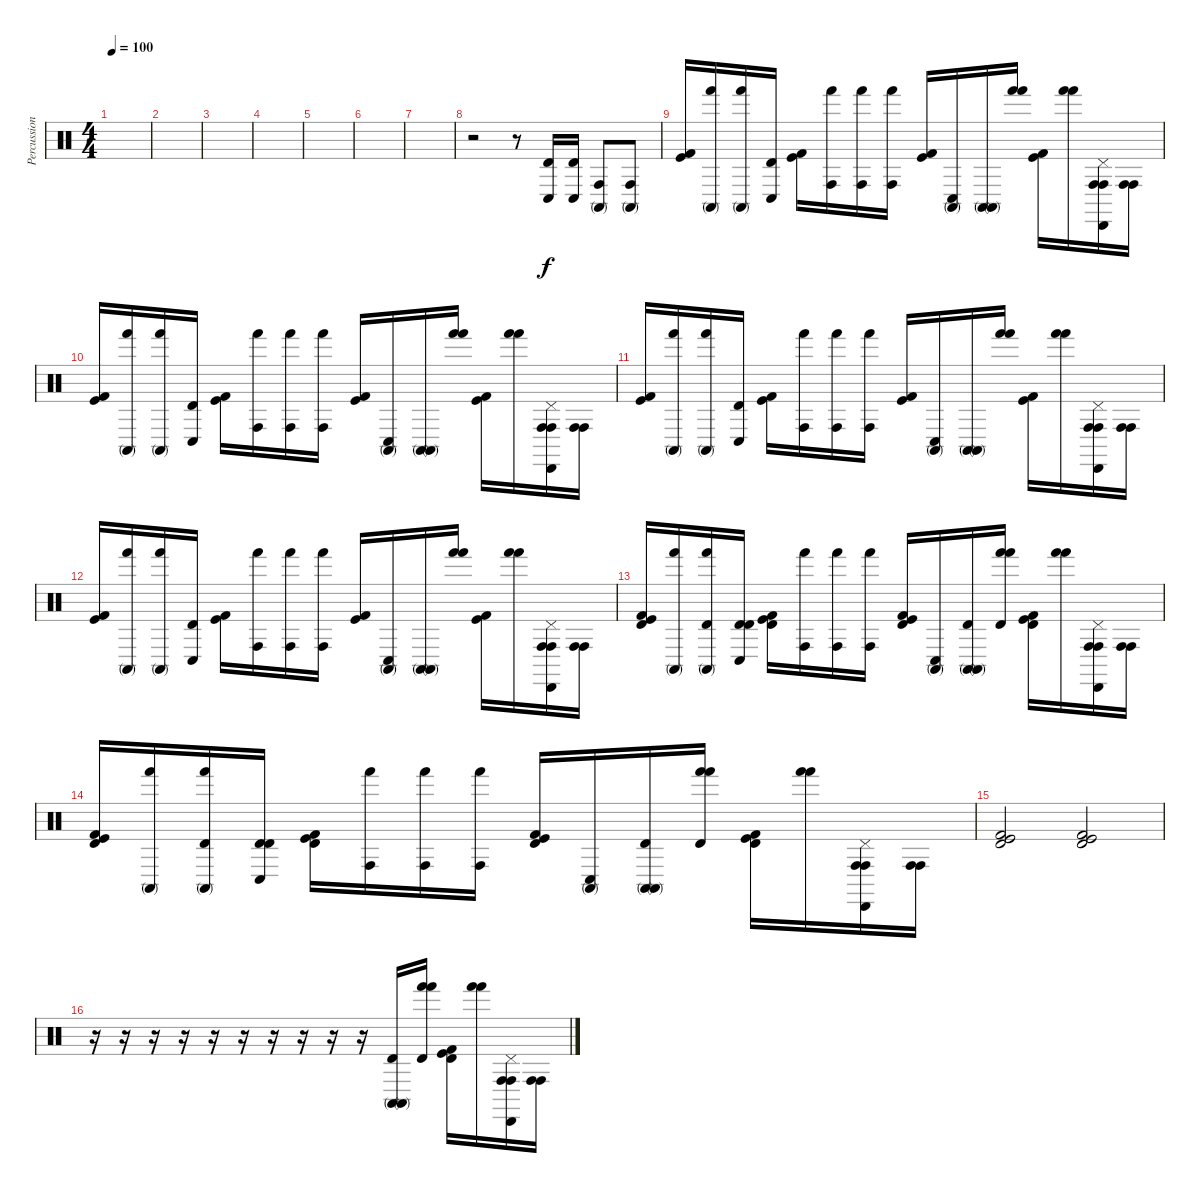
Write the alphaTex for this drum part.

\track ("Percussion" "Percussion") {instrument percussion}
\staff {score}
\articulation defaults
\ts (4 4)
\tempo 100
\clef neutral
\ks c
|
|
|
|
|
|
|
r.2 r.8 ("Conga low (hit)" "Timbale high (hit)").16 ("Conga low (hit)" "Timbale high (hit)").16 ("Conga high (hit)" "Conga high (mute)").8 ("Conga high (hit)" "Conga high (mute)").8 |
("Kick (hit) 2" "Kick (hit)").16 ("Conga high (mute)" "Hand (hit)").16 ("Conga high (mute)" "Hand (hit)").16 ("Conga low (hit)" "Timbale high (hit)").16 ("Kick (hit) 2" "Kick (hit)").16 ("Conga high (hit)" "Hand (hit)").16 ("Conga high (hit)" "Hand (hit)").16 ("Conga high (hit)" "Hand (hit)").16 ("Kick (hit) 2" "Kick (hit)").16 ("Conga high (mute)" "Conga low (hit)").16 ("Conga high (mute)" "Conga high (mute)").16 ("Hand (hit)" "Hand (hit)").16 ("Kick (hit) 2" "Kick (hit)").16 ("Hand (hit)" "Hand (hit)").16 ("Conga high (hit)" "Conga high (hit)" "Cabasa (hit)" "Pedal Hi-Hat (hit)").16 ("Conga high (hit)" "Conga high (hit)").16 |
("Kick (hit) 2" "Kick (hit)").16 ("Conga high (mute)" "Hand (hit)").16 ("Conga high (mute)" "Hand (hit)").16 ("Conga low (hit)" "Timbale high (hit)").16 ("Kick (hit) 2" "Kick (hit)").16 ("Conga high (hit)" "Hand (hit)").16 ("Conga high (hit)" "Hand (hit)").16 ("Conga high (hit)" "Hand (hit)").16 ("Kick (hit) 2" "Kick (hit)").16 ("Conga high (mute)" "Conga low (hit)").16 ("Conga high (mute)" "Conga high (mute)").16 ("Hand (hit)" "Hand (hit)").16 ("Kick (hit) 2" "Kick (hit)").16 ("Hand (hit)" "Hand (hit)").16 ("Conga high (hit)" "Conga high (hit)" "Cabasa (hit)" "Pedal Hi-Hat (hit)").16 ("Conga high (hit)" "Conga high (hit)").16 |
("Kick (hit) 2" "Kick (hit)").16 ("Conga high (mute)" "Hand (hit)").16 ("Conga high (mute)" "Hand (hit)").16 ("Conga low (hit)" "Timbale high (hit)").16 ("Kick (hit) 2" "Kick (hit)").16 ("Conga high (hit)" "Hand (hit)").16 ("Conga high (hit)" "Hand (hit)").16 ("Conga high (hit)" "Hand (hit)").16 ("Kick (hit) 2" "Kick (hit)").16 ("Conga high (mute)" "Conga low (hit)").16 ("Conga high (mute)" "Conga high (mute)").16 ("Hand (hit)" "Hand (hit)").16 ("Kick (hit) 2" "Kick (hit)").16 ("Hand (hit)" "Hand (hit)").16 ("Conga high (hit)" "Conga high (hit)" "Cabasa (hit)" "Pedal Hi-Hat (hit)").16 ("Conga high (hit)" "Conga high (hit)").16 |
("Kick (hit) 2" "Kick (hit)").16 ("Conga high (mute)" "Hand (hit)").16 ("Conga high (mute)" "Hand (hit)").16 ("Conga low (hit)" "Timbale high (hit)").16 ("Kick (hit) 2" "Kick (hit)").16 ("Conga high (hit)" "Hand (hit)").16 ("Conga high (hit)" "Hand (hit)").16 ("Conga high (hit)" "Hand (hit)").16 ("Kick (hit) 2" "Kick (hit)").16 ("Conga high (mute)" "Conga low (hit)").16 ("Conga high (mute)" "Conga high (mute)").16 ("Hand (hit)" "Hand (hit)").16 ("Kick (hit) 2" "Kick (hit)").16 ("Hand (hit)" "Hand (hit)").16 ("Conga high (hit)" "Conga high (hit)" "Cabasa (hit)" "Pedal Hi-Hat (hit)").16 ("Conga high (hit)" "Conga high (hit)").16 |
("Timbale high (hit)" "Kick (hit) 2" "Kick (hit)").16 ("Conga high (mute)" "Hand (hit)").16 ("Conga high (mute)" "Hand (hit)" "Timbale high (hit)").16 ("Conga low (hit)" "Timbale high (hit)" "Timbale high (hit)").16 ("Timbale high (hit)" "Kick (hit) 2" "Kick (hit)").16 ("Conga high (hit)" "Hand (hit)").16 ("Conga high (hit)" "Hand (hit)").16 ("Conga high (hit)" "Hand (hit)").16 ("Timbale high (hit)" "Kick (hit) 2" "Kick (hit)").16 ("Conga high (mute)" "Conga low (hit)").16 ("Conga high (mute)" "Conga high (mute)" "Timbale high (hit)").16 ("Hand (hit)" "Hand (hit)" "Timbale high (hit)").16 ("Timbale high (hit)" "Kick (hit) 2" "Kick (hit)").16 ("Hand (hit)" "Hand (hit)").16 ("Conga high (hit)" "Conga high (hit)" "Cabasa (hit)" "Pedal Hi-Hat (hit)").16 ("Conga high (hit)" "Conga high (hit)").16 |
("Timbale high (hit)" "Kick (hit) 2" "Kick (hit)").16 ("Conga high (mute)" "Hand (hit)").16 ("Conga high (mute)" "Hand (hit)" "Timbale high (hit)").16 ("Conga low (hit)" "Timbale high (hit)" "Timbale high (hit)").16 ("Timbale high (hit)" "Kick (hit) 2" "Kick (hit)").16 ("Conga high (hit)" "Hand (hit)").16 ("Conga high (hit)" "Hand (hit)").16 ("Conga high (hit)" "Hand (hit)").16 ("Timbale high (hit)" "Kick (hit) 2" "Kick (hit)").16 ("Conga high (mute)" "Conga low (hit)").16 ("Conga high (mute)" "Conga high (mute)" "Timbale high (hit)").16 ("Hand (hit)" "Hand (hit)" "Timbale high (hit)").16 ("Timbale high (hit)" "Kick (hit) 2" "Kick (hit)").16 ("Hand (hit)" "Hand (hit)").16 ("Conga high (hit)" "Conga high (hit)" "Cabasa (hit)" "Pedal Hi-Hat (hit)").16 ("Conga high (hit)" "Conga high (hit)").16 |
("Timbale high (hit)" "Kick (hit) 2" "Kick (hit)").2 ("Timbale high (hit)" "Kick (hit) 2" "Kick (hit)").2 |
r.16 r.16 r.16 r.16 r.16 r.16 r.16 r.16 r.16 r.16 ("Conga high (mute)" "Conga high (mute)" "Timbale high (hit)").16 ("Hand (hit)" "Hand (hit)" "Timbale high (hit)").16 ("Timbale high (hit)" "Kick (hit) 2" "Kick (hit)").16 ("Hand (hit)" "Hand (hit)").16 ("Conga high (hit)" "Conga high (hit)" "Cabasa (hit)" "Pedal Hi-Hat (hit)").16 ("Conga high (hit)" "Conga high (hit)").16
